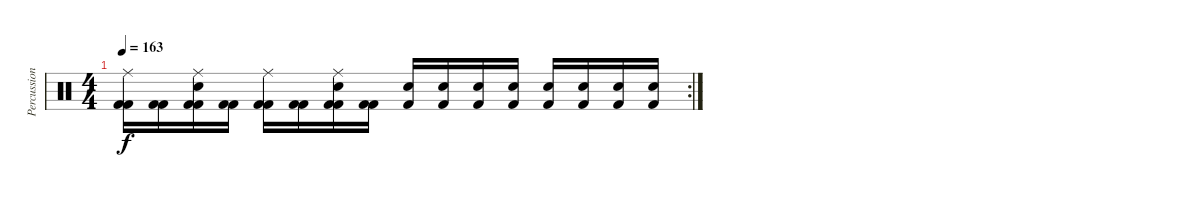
\track ("Percussion" "Percussion") {instrument percussion}
\staff {score}
\articulation defaults
\rc 2
\ts (4 4)
\tempo 163
\clef neutral
\ks c
("Kick (hit) 2" "Kick (hit) 2" "Ride (middle)").16{dy f} ("Kick (hit) 2" "Kick (hit) 2").16 ("Kick (hit) 2" "Kick (hit) 2" "Electric Snare (hit)" "Ride (middle)").16 ("Kick (hit) 2" "Kick (hit) 2").16 ("Kick (hit) 2" "Kick (hit) 2" "Ride (middle)").16 ("Kick (hit) 2" "Kick (hit) 2").16 ("Kick (hit) 2" "Kick (hit) 2" "Electric Snare (hit)" "Ride (middle)").16 ("Kick (hit) 2" "Kick (hit) 2").16 ("Kick (hit) 2" "Electric Snare (hit)").16 ("Kick (hit) 2" "Electric Snare (hit)").16 ("Kick (hit) 2" "Electric Snare (hit)").16 ("Kick (hit) 2" "Electric Snare (hit)").16 ("Kick (hit) 2" "Electric Snare (hit)").16 ("Kick (hit) 2" "Electric Snare (hit)").16 ("Kick (hit) 2" "Electric Snare (hit)").16 ("Kick (hit) 2" "Electric Snare (hit)").16
